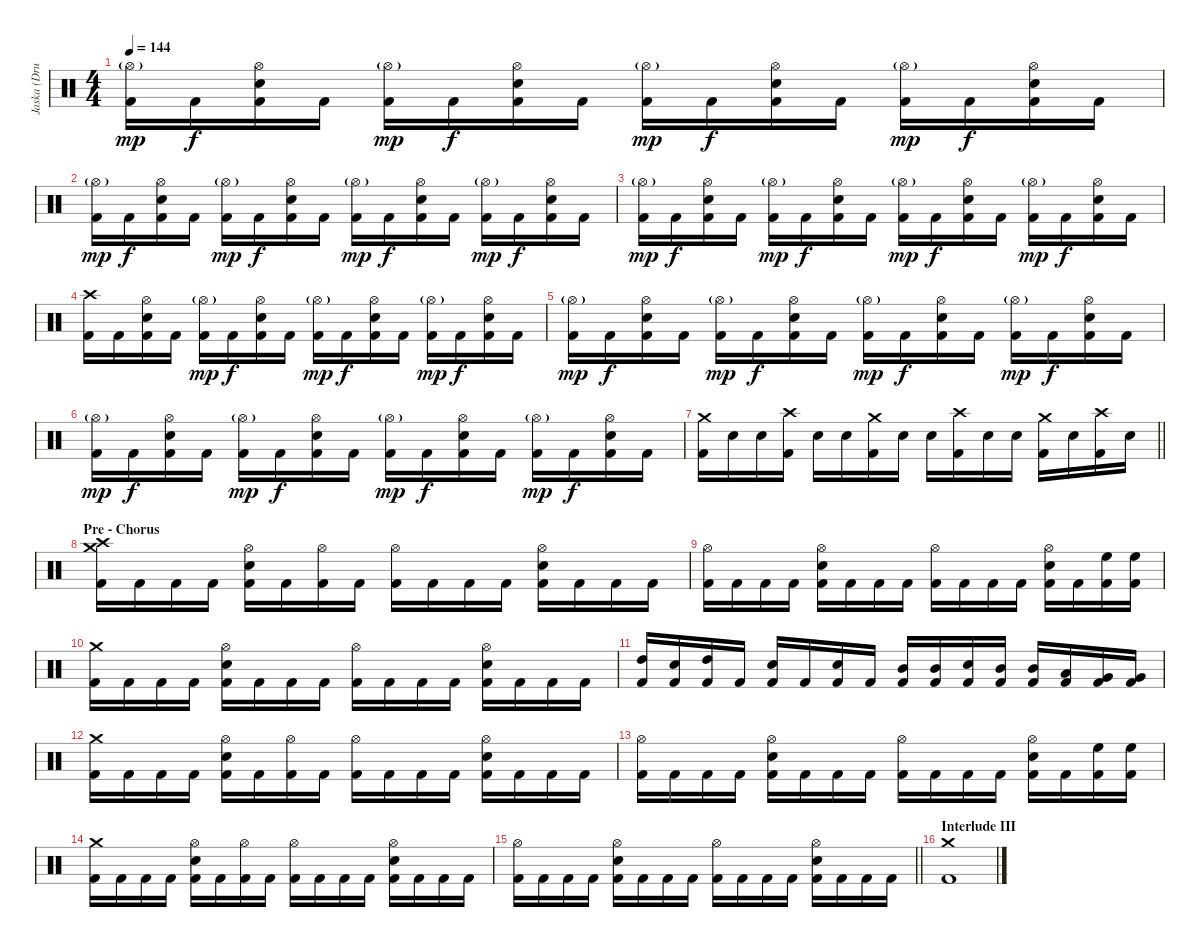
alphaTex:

\track ("Jaska (Drums)" "Jaska (Dru") {instrument percussion}
\staff {score}
\articulation defaults
\ts (4 4)
\tempo 144
\clef neutral
\ks c
("Hi-Hat (open)"{g} "Kick (hit) 2").16{dy mp} "Kick (hit) 2".16{dy f} ("Hi-Hat (open)" "Electric Snare (hit)" "Kick (hit) 2").16 "Kick (hit) 2".16 ("Hi-Hat (open)"{g} "Kick (hit) 2").16{dy mp} "Kick (hit) 2".16{dy f} ("Hi-Hat (open)" "Electric Snare (hit)" "Kick (hit) 2").16 "Kick (hit) 2".16 ("Hi-Hat (open)"{g} "Kick (hit) 2").16{dy mp} "Kick (hit) 2".16{dy f} ("Hi-Hat (open)" "Electric Snare (hit)" "Kick (hit) 2").16 "Kick (hit) 2".16 ("Hi-Hat (open)"{g} "Kick (hit) 2").16{dy mp} "Kick (hit) 2".16{dy f} ("Hi-Hat (open)" "Electric Snare (hit)" "Kick (hit) 2").16 "Kick (hit) 2".16 |
("Hi-Hat (open)"{g} "Kick (hit) 2").16{dy mp} "Kick (hit) 2".16{dy f} ("Hi-Hat (open)" "Electric Snare (hit)" "Kick (hit) 2").16 "Kick (hit) 2".16 ("Hi-Hat (open)"{g} "Kick (hit) 2").16{dy mp} "Kick (hit) 2".16{dy f} ("Hi-Hat (open)" "Electric Snare (hit)" "Kick (hit) 2").16 "Kick (hit) 2".16 ("Hi-Hat (open)"{g} "Kick (hit) 2").16{dy mp} "Kick (hit) 2".16{dy f} ("Hi-Hat (open)" "Electric Snare (hit)" "Kick (hit) 2").16 "Kick (hit) 2".16 ("Hi-Hat (open)"{g} "Kick (hit) 2").16{dy mp} "Kick (hit) 2".16{dy f} ("Hi-Hat (open)" "Electric Snare (hit)" "Kick (hit) 2").16 "Kick (hit) 2".16 |
("Hi-Hat (open)"{g} "Kick (hit) 2").16{dy mp} "Kick (hit) 2".16{dy f} ("Hi-Hat (open)" "Electric Snare (hit)" "Kick (hit) 2").16 "Kick (hit) 2".16 ("Hi-Hat (open)"{g} "Kick (hit) 2").16{dy mp} "Kick (hit) 2".16{dy f} ("Hi-Hat (open)" "Electric Snare (hit)" "Kick (hit) 2").16 "Kick (hit) 2".16 ("Hi-Hat (open)"{g} "Kick (hit) 2").16{dy mp} "Kick (hit) 2".16{dy f} ("Hi-Hat (open)" "Electric Snare (hit)" "Kick (hit) 2").16 "Kick (hit) 2".16 ("Hi-Hat (open)"{g} "Kick (hit) 2").16{dy mp} "Kick (hit) 2".16{dy f} ("Hi-Hat (open)" "Electric Snare (hit)" "Kick (hit) 2").16 "Kick (hit) 2".16 |
("Crash high (hit)" "Kick (hit) 2").16 "Kick (hit) 2".16 ("Hi-Hat (open)" "Electric Snare (hit)" "Kick (hit) 2").16 "Kick (hit) 2".16 ("Hi-Hat (open)"{g} "Kick (hit) 2").16{dy mp} "Kick (hit) 2".16{dy f} ("Hi-Hat (open)" "Electric Snare (hit)" "Kick (hit) 2").16 "Kick (hit) 2".16 ("Hi-Hat (open)"{g} "Kick (hit) 2").16{dy mp} "Kick (hit) 2".16{dy f} ("Hi-Hat (open)" "Electric Snare (hit)" "Kick (hit) 2").16 "Kick (hit) 2".16 ("Hi-Hat (open)"{g} "Kick (hit) 2").16{dy mp} "Kick (hit) 2".16{dy f} ("Hi-Hat (open)" "Electric Snare (hit)" "Kick (hit) 2").16 "Kick (hit) 2".16 |
("Hi-Hat (open)"{g} "Kick (hit) 2").16{dy mp} "Kick (hit) 2".16{dy f} ("Hi-Hat (open)" "Electric Snare (hit)" "Kick (hit) 2").16 "Kick (hit) 2".16 ("Hi-Hat (open)"{g} "Kick (hit) 2").16{dy mp} "Kick (hit) 2".16{dy f} ("Hi-Hat (open)" "Electric Snare (hit)" "Kick (hit) 2").16 "Kick (hit) 2".16 ("Hi-Hat (open)"{g} "Kick (hit) 2").16{dy mp} "Kick (hit) 2".16{dy f} ("Hi-Hat (open)" "Electric Snare (hit)" "Kick (hit) 2").16 "Kick (hit) 2".16 ("Hi-Hat (open)"{g} "Kick (hit) 2").16{dy mp} "Kick (hit) 2".16{dy f} ("Hi-Hat (open)" "Electric Snare (hit)" "Kick (hit) 2").16 "Kick (hit) 2".16 |
("Hi-Hat (open)"{g} "Kick (hit) 2").16{dy mp} "Kick (hit) 2".16{dy f} ("Hi-Hat (open)" "Electric Snare (hit)" "Kick (hit) 2").16 "Kick (hit) 2".16 ("Hi-Hat (open)"{g} "Kick (hit) 2").16{dy mp} "Kick (hit) 2".16{dy f} ("Hi-Hat (open)" "Electric Snare (hit)" "Kick (hit) 2").16 "Kick (hit) 2".16 ("Hi-Hat (open)"{g} "Kick (hit) 2").16{dy mp} "Kick (hit) 2".16{dy f} ("Hi-Hat (open)" "Electric Snare (hit)" "Kick (hit) 2").16 "Kick (hit) 2".16 ("Hi-Hat (open)"{g} "Kick (hit) 2").16{dy mp} "Kick (hit) 2".16{dy f} ("Hi-Hat (open)" "Electric Snare (hit)" "Kick (hit) 2").16 "Kick (hit) 2".16 |
\barLineRight lightlight
("Crash medium (hit)" "Kick (hit) 2").16 "Electric Snare (hit)".16 "Electric Snare (hit)".16 ("Crash high (hit)" "Kick (hit) 2").16 "Electric Snare (hit)".16 "Electric Snare (hit)".16 ("Crash medium (hit)" "Kick (hit) 2").16 "Electric Snare (hit)".16 "Electric Snare (hit)".16 ("Crash high (hit)" "Kick (hit) 2").16 "Electric Snare (hit)".16 "Electric Snare (hit)".16 ("Crash medium (hit)" "Kick (hit) 2").16 "Electric Snare (hit)".16 ("Crash high (hit)" "Kick (hit) 2").16 "Electric Snare (hit)".16 |
\section ("" "Pre - Chorus")
("Crash medium (hit)" "Crash high (hit)" "Kick (hit) 2").16{volume 16 balance 8} "Kick (hit) 2".16 "Kick (hit) 2".16 "Kick (hit) 2".16 ("Hi-Hat (open)" "Electric Snare (hit)" "Kick (hit) 2").16 "Kick (hit) 2".16 ("Hi-Hat (open)" "Kick (hit) 2").16 "Kick (hit) 2".16 ("Hi-Hat (open)" "Kick (hit) 2").16 "Kick (hit) 2".16 "Kick (hit) 2".16 "Kick (hit) 2".16 ("Hi-Hat (open)" "Electric Snare (hit)" "Kick (hit) 2").16 "Kick (hit) 2".16 "Kick (hit) 2".16 "Kick (hit) 2".16 |
("Hi-Hat (open)" "Kick (hit) 2").16 "Kick (hit) 2".16 "Kick (hit) 2".16 "Kick (hit) 2".16 ("Hi-Hat (open)" "Electric Snare (hit)" "Kick (hit) 2").16 "Kick (hit) 2".16 "Kick (hit) 2".16 "Kick (hit) 2".16 ("Hi-Hat (open)" "Kick (hit) 2").16 "Kick (hit) 2".16 "Kick (hit) 2".16 "Kick (hit) 2".16 ("Hi-Hat (open)" "Electric Snare (hit)" "Kick (hit) 2").16 "Kick (hit) 2".16 ("High Floor Tom (hit)" "Kick (hit) 2").16 ("High Floor Tom (hit)" "Kick (hit) 2").16 |
("Crash medium (hit)" "Kick (hit) 2").16 "Kick (hit) 2".16 "Kick (hit) 2".16 "Kick (hit) 2".16 ("Hi-Hat (open)" "Electric Snare (hit)" "Kick (hit) 2").16 "Kick (hit) 2".16 "Kick (hit) 2".16 "Kick (hit) 2".16 ("Hi-Hat (open)" "Kick (hit) 2").16 "Kick (hit) 2".16 "Kick (hit) 2".16 "Kick (hit) 2".16 ("Hi-Hat (open)" "Electric Snare (hit)" "Kick (hit) 2").16 "Kick (hit) 2".16 "Kick (hit) 2".16 "Kick (hit) 2".16 |
("High Tom (hit)" "Kick (hit) 2").16 ("Electric Snare (hit)" "Kick (hit) 2").16 ("High Tom (hit)" "Kick (hit) 2").16 "Kick (hit) 2".16 ("Electric Snare (hit)" "Kick (hit) 2").16 "Kick (hit) 2".16 ("Electric Snare (hit)" "Kick (hit) 2").16 "Kick (hit) 2".16 ("Mid Tom (hit)" "Kick (hit) 2").16 ("Mid Tom (hit)" "Kick (hit) 2").16 ("Electric Snare (hit)" "Kick (hit) 2").16 ("Mid Tom (hit)" "Kick (hit) 2").16 ("Mid Tom (hit)" "Kick (hit) 2").16 ("Low Tom (hit)" "Kick (hit) 2").16 ("Very Low Tom (hit)" "Kick (hit) 2").16 ("Very Low Tom (hit)" "Kick (hit) 2").16 |
("Crash medium (hit)" "Kick (hit) 2").16 "Kick (hit) 2".16 "Kick (hit) 2".16 "Kick (hit) 2".16 ("Hi-Hat (open)" "Electric Snare (hit)" "Kick (hit) 2").16 "Kick (hit) 2".16 ("Hi-Hat (open)" "Kick (hit) 2").16 "Kick (hit) 2".16 ("Hi-Hat (open)" "Kick (hit) 2").16 "Kick (hit) 2".16 "Kick (hit) 2".16 "Kick (hit) 2".16 ("Hi-Hat (open)" "Electric Snare (hit)" "Kick (hit) 2").16 "Kick (hit) 2".16 "Kick (hit) 2".16 "Kick (hit) 2".16 |
("Hi-Hat (open)" "Kick (hit) 2").16 "Kick (hit) 2".16 "Kick (hit) 2".16 "Kick (hit) 2".16 ("Hi-Hat (open)" "Electric Snare (hit)" "Kick (hit) 2").16 "Kick (hit) 2".16 "Kick (hit) 2".16 "Kick (hit) 2".16 ("Hi-Hat (open)" "Kick (hit) 2").16 "Kick (hit) 2".16 "Kick (hit) 2".16 "Kick (hit) 2".16 ("Hi-Hat (open)" "Electric Snare (hit)" "Kick (hit) 2").16 "Kick (hit) 2".16 ("High Floor Tom (hit)" "Kick (hit) 2").16 ("High Floor Tom (hit)" "Kick (hit) 2").16 |
("Crash medium (hit)" "Kick (hit) 2").16 "Kick (hit) 2".16 "Kick (hit) 2".16 "Kick (hit) 2".16 ("Hi-Hat (open)" "Electric Snare (hit)" "Kick (hit) 2").16 "Kick (hit) 2".16 ("Hi-Hat (open)" "Kick (hit) 2").16 "Kick (hit) 2".16 ("Hi-Hat (open)" "Kick (hit) 2").16 "Kick (hit) 2".16 "Kick (hit) 2".16 "Kick (hit) 2".16 ("Hi-Hat (open)" "Electric Snare (hit)" "Kick (hit) 2").16 "Kick (hit) 2".16 "Kick (hit) 2".16 "Kick (hit) 2".16 |
\barLineRight lightlight
("Hi-Hat (open)" "Kick (hit) 2").16 "Kick (hit) 2".16 "Kick (hit) 2".16 "Kick (hit) 2".16 ("Hi-Hat (open)" "Electric Snare (hit)" "Kick (hit) 2").16 "Kick (hit) 2".16 "Kick (hit) 2".16 "Kick (hit) 2".16 ("Hi-Hat (open)" "Kick (hit) 2").16 "Kick (hit) 2".16 "Kick (hit) 2".16 "Kick (hit) 2".16 ("Hi-Hat (open)" "Electric Snare (hit)" "Kick (hit) 2").16 "Kick (hit) 2".16 "Kick (hit) 2".16 "Kick (hit) 2".16 |
\section ("" "Interlude III")
("Crash medium (hit)" "Kick (hit) 2").1
